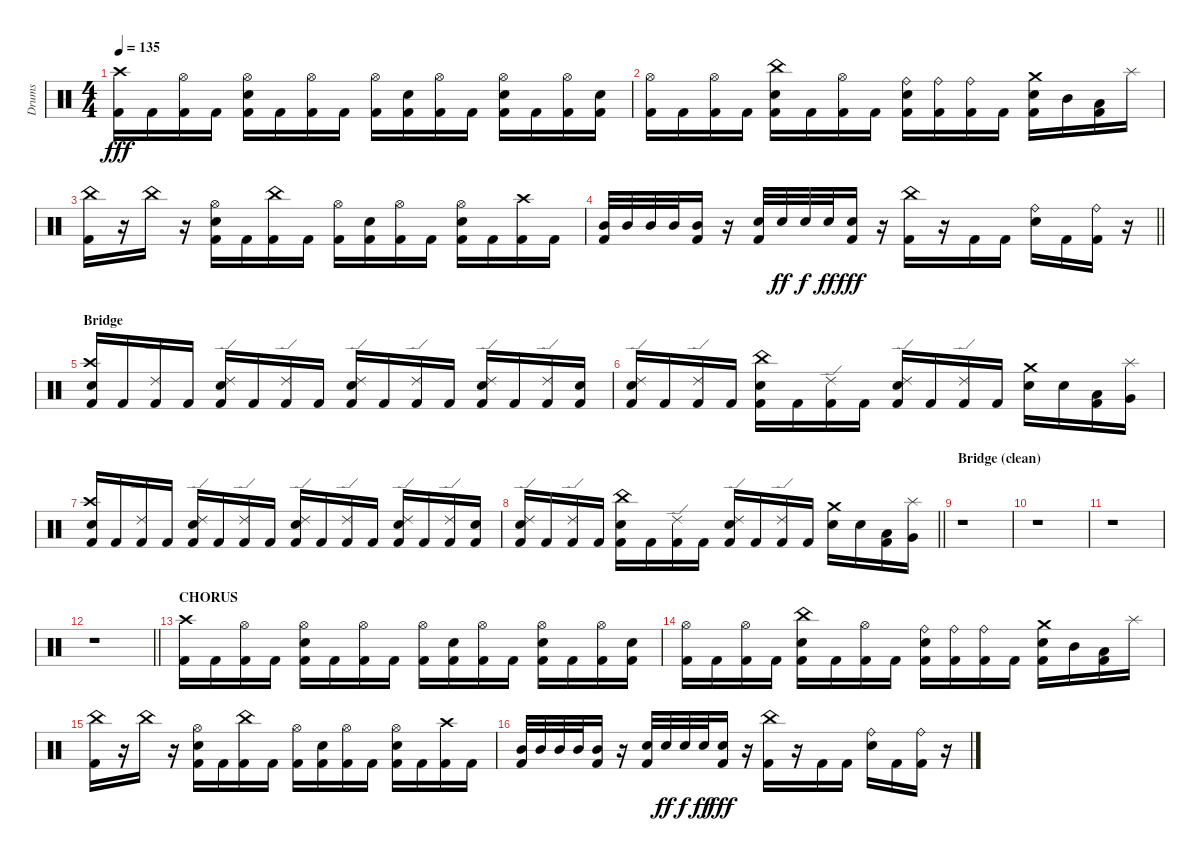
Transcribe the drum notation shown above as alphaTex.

\track ("Drums" "Drums") {instrument percussion}
\staff {score}
\articulation defaults
\ts (4 4)
\tempo 135
\clef neutral
\ks c
("Kick (hit) 2" "Crash high (hit)").16{dy fff} "Kick (hit) 2".16 ("Kick (hit) 2" "Hi-Hat (open)").16 "Kick (hit) 2".16 ("Kick (hit) 2" "Snare (hit) 2" "Hi-Hat (open)").16 "Kick (hit) 2".16 ("Kick (hit) 2" "Hi-Hat (open)").16 "Kick (hit) 2".16 ("Kick (hit) 2" "Hi-Hat (open)").16 ("Kick (hit) 2" "Snare (hit) 2").16 ("Kick (hit) 2" "Hi-Hat (open)").16 "Kick (hit) 2".16 ("Kick (hit) 2" "Snare (hit) 2" "Hi-Hat (open)").16 "Kick (hit) 2".16 ("Kick (hit) 2" "Hi-Hat (open)").16 ("Kick (hit) 2" "Snare (hit) 2").16 |
("Kick (hit) 2" "Hi-Hat (open)").16 "Kick (hit) 2".16 ("Kick (hit) 2" "Hi-Hat (open)").16 "Kick (hit) 2".16 ("Kick (hit) 2" "Snare (hit) 2" "China (hit)").16 "Kick (hit) 2".16 ("Kick (hit) 2" "Hi-Hat (open)").16 "Kick (hit) 2".16 ("Kick (hit) 2" "Snare (hit) 2" "Ride (bell)").16 ("Kick (hit) 2" "Ride (bell)").16 ("Kick (hit) 2" "Ride (bell)").16 "Kick (hit) 2".16 ("Kick (hit) 2" "Snare (hit) 2" "Crash medium (hit)").16 "Mid Tom (hit)".16 ("Kick (hit) 2" "Low Tom (hit)").16 "Splash (hit)".16 |
("Kick (hit) 2" "China (hit)").16 r.16 "China (hit)".16 r.16 ("Kick (hit) 2" "Snare (hit) 2" "Hi-Hat (open)").16 "Kick (hit) 2".16 ("Kick (hit) 2" "China (hit)").16 "Kick (hit) 2".16 ("Kick (hit) 2" "Hi-Hat (open)").16 ("Kick (hit) 2" "Snare (hit) 2").16 ("Kick (hit) 2" "Hi-Hat (open)").16 "Kick (hit) 2".16 ("Kick (hit) 2" "Snare (hit) 2" "Hi-Hat (open)").16 "Kick (hit) 2".16 ("Kick (hit) 2" "Crash high (hit)").16 "Kick (hit) 2".16 |
\barLineRight lightlight
("Kick (hit) 2" "Mid Tom (hit)").32 "Mid Tom (hit)".32 "Mid Tom (hit)".32 "Mid Tom (hit)".32 ("Kick (hit) 2" "Mid Tom (hit)").16 r.16 ("Kick (hit) 2" "Snare (hit) 2").32 "Snare (hit) 2".32{dy ff} "Snare (hit) 2".32{dy f} "Snare (hit) 2".32{dy ff} ("Kick (hit) 2" "Snare (hit) 2").16{dy fff} r.16 ("Kick (hit) 2" "China (hit)").16 r.16 "Kick (hit) 2".16 "Kick (hit) 2".16 ("Snare (hit) 2" "Ride (bell)").16 "Kick (hit) 2".16 ("Kick (hit) 2" "Ride (bell)").16 r.16 |
\section ("" "Bridge")
("Kick (hit) 2" "Snare (hit) 2" "Crash high (hit)").16 "Kick (hit) 2".16 ("Kick (hit) 2" "Ride (edge) 2").16 "Kick (hit) 2".16 ("Kick (hit) 2" "Snare (hit) 2" "Ride (edge) 2").16 "Kick (hit) 2".16 ("Kick (hit) 2" "Ride (edge) 2").16 "Kick (hit) 2".16 ("Kick (hit) 2" "Snare (hit) 2" "Ride (edge) 2").16 "Kick (hit) 2".16 ("Kick (hit) 2" "Ride (edge) 2").16 "Kick (hit) 2".16 ("Kick (hit) 2" "Snare (hit) 2" "Ride (edge) 2").16 "Kick (hit) 2".16 ("Kick (hit) 2" "Ride (edge) 2").16 ("Kick (hit) 2" "Snare (hit) 2").16 |
("Kick (hit) 2" "Snare (hit) 2" "Ride (edge) 2").16 "Kick (hit) 2".16 ("Kick (hit) 2" "Ride (edge) 2").16 "Kick (hit) 2".16 ("Kick (hit) 2" "Snare (hit) 2" "China (hit)").16 "Kick (hit) 2".16 ("Kick (hit) 2" "Ride (edge) 2").16 "Kick (hit) 2".16 ("Kick (hit) 2" "Snare (hit) 2" "Ride (edge) 2").16 "Kick (hit) 2".16 ("Kick (hit) 2" "Ride (edge) 2").16 "Kick (hit) 2".16 ("Snare (hit) 2" "Crash medium (hit)").16 "Snare (hit) 2".16 ("Kick (hit) 2" "Low Tom (hit)").16 ("Very Low Tom (hit)" "Splash (hit)").16 |
("Kick (hit) 2" "Snare (hit) 2" "Crash high (hit)").16 "Kick (hit) 2".16 ("Kick (hit) 2" "Ride (edge) 2").16 "Kick (hit) 2".16 ("Kick (hit) 2" "Snare (hit) 2" "Ride (edge) 2").16 "Kick (hit) 2".16 ("Kick (hit) 2" "Ride (edge) 2").16 "Kick (hit) 2".16 ("Kick (hit) 2" "Snare (hit) 2" "Ride (edge) 2").16 "Kick (hit) 2".16 ("Kick (hit) 2" "Ride (edge) 2").16 "Kick (hit) 2".16 ("Kick (hit) 2" "Snare (hit) 2" "Ride (edge) 2").16 "Kick (hit) 2".16 ("Kick (hit) 2" "Ride (edge) 2").16 ("Kick (hit) 2" "Snare (hit) 2").16 |
\barLineRight lightlight
("Kick (hit) 2" "Snare (hit) 2" "Ride (edge) 2").16 "Kick (hit) 2".16 ("Kick (hit) 2" "Ride (edge) 2").16 "Kick (hit) 2".16 ("Kick (hit) 2" "Snare (hit) 2" "China (hit)").16 "Kick (hit) 2".16 ("Kick (hit) 2" "Ride (edge) 2").16 "Kick (hit) 2".16 ("Kick (hit) 2" "Snare (hit) 2" "Ride (edge) 2").16 "Kick (hit) 2".16 ("Kick (hit) 2" "Ride (edge) 2").16 "Kick (hit) 2".16 ("Snare (hit) 2" "Crash medium (hit)").16 "Snare (hit) 2".16 ("Kick (hit) 2" "Low Tom (hit)").16 ("Very Low Tom (hit)" "Splash (hit)").16 |
\section ("" "Bridge (clean)")
r.1 |
r.1 |
r.1 |
\barLineRight lightlight
r.1 |
\section ("" "CHORUS")
("Kick (hit) 2" "Crash high (hit)").16 "Kick (hit) 2".16 ("Kick (hit) 2" "Hi-Hat (open)").16 "Kick (hit) 2".16 ("Kick (hit) 2" "Snare (hit) 2" "Hi-Hat (open)").16 "Kick (hit) 2".16 ("Kick (hit) 2" "Hi-Hat (open)").16 "Kick (hit) 2".16 ("Kick (hit) 2" "Hi-Hat (open)").16 ("Kick (hit) 2" "Snare (hit) 2").16 ("Kick (hit) 2" "Hi-Hat (open)").16 "Kick (hit) 2".16 ("Kick (hit) 2" "Snare (hit) 2" "Hi-Hat (open)").16 "Kick (hit) 2".16 ("Kick (hit) 2" "Hi-Hat (open)").16 ("Kick (hit) 2" "Snare (hit) 2").16 |
("Kick (hit) 2" "Hi-Hat (open)").16 "Kick (hit) 2".16 ("Kick (hit) 2" "Hi-Hat (open)").16 "Kick (hit) 2".16 ("Kick (hit) 2" "Snare (hit) 2" "China (hit)").16 "Kick (hit) 2".16 ("Kick (hit) 2" "Hi-Hat (open)").16 "Kick (hit) 2".16 ("Kick (hit) 2" "Snare (hit) 2" "Ride (bell)").16 ("Kick (hit) 2" "Ride (bell)").16 ("Kick (hit) 2" "Ride (bell)").16 "Kick (hit) 2".16 ("Kick (hit) 2" "Snare (hit) 2" "Crash medium (hit)").16 "Mid Tom (hit)".16 ("Kick (hit) 2" "Low Tom (hit)").16 "Splash (hit)".16 |
("Kick (hit) 2" "China (hit)").16 r.16 "China (hit)".16 r.16 ("Kick (hit) 2" "Snare (hit) 2" "Hi-Hat (open)").16 "Kick (hit) 2".16 ("Kick (hit) 2" "China (hit)").16 "Kick (hit) 2".16 ("Kick (hit) 2" "Hi-Hat (open)").16 ("Kick (hit) 2" "Snare (hit) 2").16 ("Kick (hit) 2" "Hi-Hat (open)").16 "Kick (hit) 2".16 ("Kick (hit) 2" "Snare (hit) 2" "Hi-Hat (open)").16 "Kick (hit) 2".16 ("Kick (hit) 2" "Crash high (hit)").16 "Kick (hit) 2".16 |
("Kick (hit) 2" "Mid Tom (hit)").32 "Mid Tom (hit)".32 "Mid Tom (hit)".32 "Mid Tom (hit)".32 ("Kick (hit) 2" "Mid Tom (hit)").16 r.16 ("Kick (hit) 2" "Snare (hit) 2").32 "Snare (hit) 2".32{dy ff} "Snare (hit) 2".32{dy f} "Snare (hit) 2".32{dy ff} ("Kick (hit) 2" "Snare (hit) 2").16{dy fff} r.16 ("Kick (hit) 2" "China (hit)").16 r.16 "Kick (hit) 2".16 "Kick (hit) 2".16 ("Snare (hit) 2" "Ride (bell)").16 "Kick (hit) 2".16 ("Kick (hit) 2" "Ride (bell)").16 r.16
